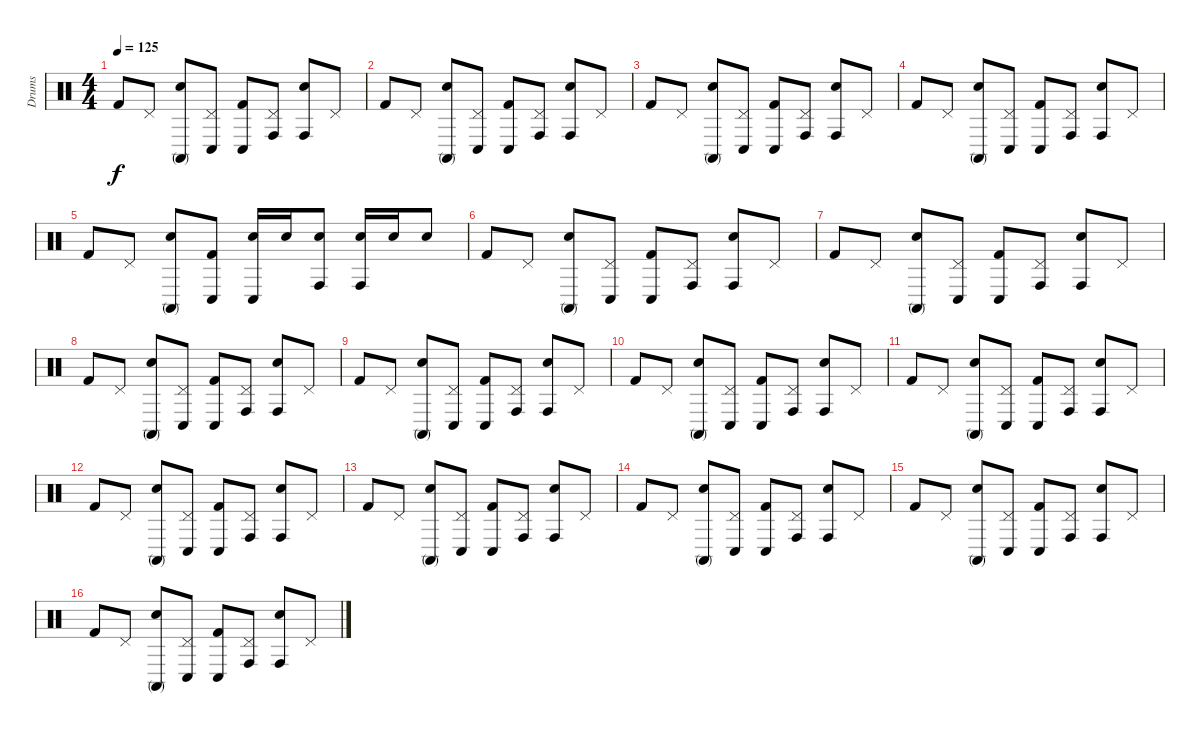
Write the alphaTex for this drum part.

\track ("Drums" "Drums") {instrument percussion}
\staff {score}
\articulation defaults
\ts (4 4)
\tempo 125
\clef neutral
\ks c "Kick (hit) 2".8{dy f} "Pedal Hi-Hat (hit)".8
("Snare (hit) 2" "Conga high (mute)").8 ("Pedal Hi-Hat (hit)" "Conga low (hit)").8 ("Kick (hit) 2" "Conga low (hit)").8 ("Pedal Hi-Hat (hit)" "Conga high (hit)").8 ("Snare (hit) 2" "Conga high (hit)").8 "Pedal Hi-Hat (hit)".8 |
"Kick (hit) 2".8 "Pedal Hi-Hat (hit)".8 ("Snare (hit) 2" "Conga high (mute)").8 ("Pedal Hi-Hat (hit)" "Conga low (hit)").8 ("Kick (hit) 2" "Conga low (hit)").8 ("Pedal Hi-Hat (hit)" "Conga high (hit)").8 ("Snare (hit) 2" "Conga high (hit)").8 "Pedal Hi-Hat (hit)".8 |
"Kick (hit) 2".8 "Pedal Hi-Hat (hit)".8 ("Snare (hit) 2" "Conga high (mute)").8 ("Pedal Hi-Hat (hit)" "Conga low (hit)").8 ("Kick (hit) 2" "Conga low (hit)").8 ("Pedal Hi-Hat (hit)" "Conga high (hit)").8 ("Snare (hit) 2" "Conga high (hit)").8 "Pedal Hi-Hat (hit)".8 |
"Kick (hit) 2".8 "Pedal Hi-Hat (hit)".8 ("Snare (hit) 2" "Conga high (mute)").8 ("Pedal Hi-Hat (hit)" "Conga low (hit)").8 ("Kick (hit) 2" "Conga low (hit)").8 ("Pedal Hi-Hat (hit)" "Conga high (hit)").8 ("Snare (hit) 2" "Conga high (hit)").8 "Pedal Hi-Hat (hit)".8 |
"Kick (hit) 2".8 "Pedal Hi-Hat (hit)".8 ("Snare (hit) 2" "Conga high (mute)").8 ("Kick (hit) 2" "Conga low (hit)").8 ("Snare (hit) 2" "Conga low (hit)").16 "Snare (hit) 2".16 ("Snare (hit) 2" "Conga high (hit)").8 ("Snare (hit) 2" "Conga high (hit)").16 "Snare (hit) 2".16 "Snare (hit) 2".8 |
"Kick (hit) 2".8 "Pedal Hi-Hat (hit)".8 ("Snare (hit) 2" "Conga high (mute)").8 ("Pedal Hi-Hat (hit)" "Conga low (hit)").8 ("Kick (hit) 2" "Conga low (hit)").8 ("Pedal Hi-Hat (hit)" "Conga high (hit)").8 ("Snare (hit) 2" "Conga high (hit)").8 "Pedal Hi-Hat (hit)".8 |
"Kick (hit) 2".8 "Pedal Hi-Hat (hit)".8 ("Snare (hit) 2" "Conga high (mute)").8 ("Pedal Hi-Hat (hit)" "Conga low (hit)").8 ("Kick (hit) 2" "Conga low (hit)").8 ("Pedal Hi-Hat (hit)" "Conga high (hit)").8 ("Snare (hit) 2" "Conga high (hit)").8 "Pedal Hi-Hat (hit)".8 |
"Kick (hit) 2".8 "Pedal Hi-Hat (hit)".8 ("Snare (hit) 2" "Conga high (mute)").8 ("Pedal Hi-Hat (hit)" "Conga low (hit)").8 ("Kick (hit) 2" "Conga low (hit)").8 ("Pedal Hi-Hat (hit)" "Conga high (hit)").8 ("Snare (hit) 2" "Conga high (hit)").8 "Pedal Hi-Hat (hit)".8 |
"Kick (hit) 2".8 "Pedal Hi-Hat (hit)".8 ("Snare (hit) 2" "Conga high (mute)").8 ("Pedal Hi-Hat (hit)" "Conga low (hit)").8 ("Kick (hit) 2" "Conga low (hit)").8 ("Pedal Hi-Hat (hit)" "Conga high (hit)").8 ("Snare (hit) 2" "Conga high (hit)").8 "Pedal Hi-Hat (hit)".8 |
"Kick (hit) 2".8 "Pedal Hi-Hat (hit)".8 ("Snare (hit) 2" "Conga high (mute)").8 ("Pedal Hi-Hat (hit)" "Conga low (hit)").8 ("Kick (hit) 2" "Conga low (hit)").8 ("Pedal Hi-Hat (hit)" "Conga high (hit)").8 ("Snare (hit) 2" "Conga high (hit)").8 "Pedal Hi-Hat (hit)".8 |
"Kick (hit) 2".8 "Pedal Hi-Hat (hit)".8 ("Snare (hit) 2" "Conga high (mute)").8 ("Pedal Hi-Hat (hit)" "Conga low (hit)").8 ("Kick (hit) 2" "Conga low (hit)").8 ("Pedal Hi-Hat (hit)" "Conga high (hit)").8 ("Snare (hit) 2" "Conga high (hit)").8 "Pedal Hi-Hat (hit)".8 |
"Kick (hit) 2".8 "Pedal Hi-Hat (hit)".8 ("Snare (hit) 2" "Conga high (mute)").8 ("Pedal Hi-Hat (hit)" "Conga low (hit)").8 ("Kick (hit) 2" "Conga low (hit)").8 ("Pedal Hi-Hat (hit)" "Conga high (hit)").8 ("Snare (hit) 2" "Conga high (hit)").8 "Pedal Hi-Hat (hit)".8 |
"Kick (hit) 2".8 "Pedal Hi-Hat (hit)".8 ("Snare (hit) 2" "Conga high (mute)").8 ("Pedal Hi-Hat (hit)" "Conga low (hit)").8 ("Kick (hit) 2" "Conga low (hit)").8 ("Pedal Hi-Hat (hit)" "Conga high (hit)").8 ("Snare (hit) 2" "Conga high (hit)").8 "Pedal Hi-Hat (hit)".8 |
"Kick (hit) 2".8 "Pedal Hi-Hat (hit)".8 ("Snare (hit) 2" "Conga high (mute)").8 ("Pedal Hi-Hat (hit)" "Conga low (hit)").8 ("Kick (hit) 2" "Conga low (hit)").8 ("Pedal Hi-Hat (hit)" "Conga high (hit)").8 ("Snare (hit) 2" "Conga high (hit)").8 "Pedal Hi-Hat (hit)".8 |
"Kick (hit) 2".8 "Pedal Hi-Hat (hit)".8 ("Snare (hit) 2" "Conga high (mute)").8 ("Pedal Hi-Hat (hit)" "Conga low (hit)").8 ("Kick (hit) 2" "Conga low (hit)").8 ("Pedal Hi-Hat (hit)" "Conga high (hit)").8 ("Snare (hit) 2" "Conga high (hit)").8 "Pedal Hi-Hat (hit)".8 |
"Kick (hit) 2".8 "Pedal Hi-Hat (hit)".8 ("Snare (hit) 2" "Conga high (mute)").8 ("Pedal Hi-Hat (hit)" "Conga low (hit)").8 ("Kick (hit) 2" "Conga low (hit)").8 ("Pedal Hi-Hat (hit)" "Conga high (hit)").8 ("Snare (hit) 2" "Conga high (hit)").8 "Pedal Hi-Hat (hit)".8
